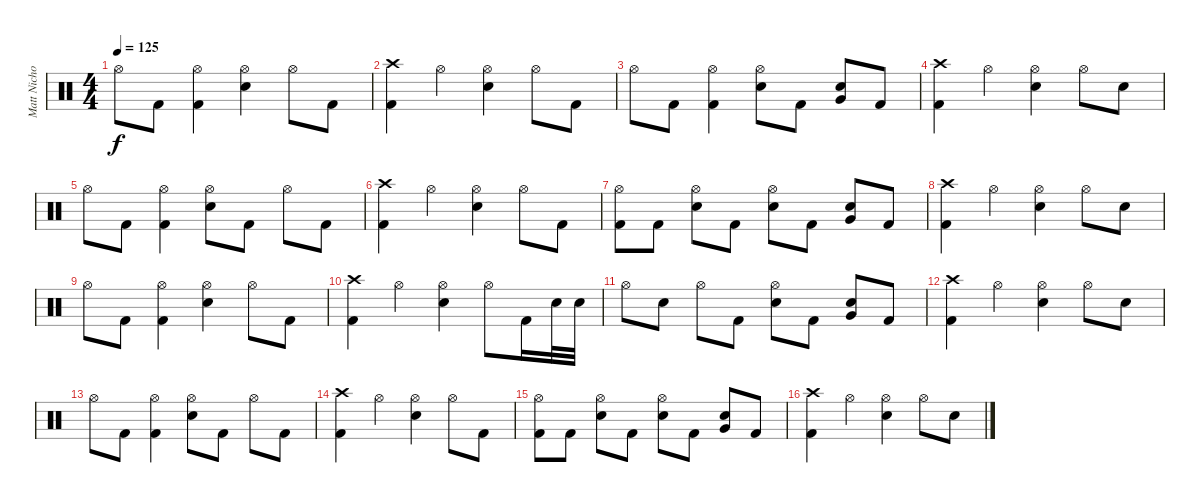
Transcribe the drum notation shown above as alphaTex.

\track ("Matt Nicholls" "Matt Nicho") {instrument percussion}
\staff {score}
\articulation defaults
\ts (4 4)
\tempo 125
\clef neutral
\ks c "Hi-Hat (open)".8{dy f} "Kick (hit) 2".8
("Hi-Hat (open)" "Kick (hit) 2").4 ("Hi-Hat (open)" "Electric Snare (hit)").4 "Hi-Hat (open)".8 "Kick (hit) 2".8 |
("Crash high (hit)" "Kick (hit) 2").4 "Hi-Hat (open)".4 ("Hi-Hat (open)" "Electric Snare (hit)").4 "Hi-Hat (open)".8 "Kick (hit) 2".8 |
"Hi-Hat (open)".8 "Kick (hit) 2".8 ("Hi-Hat (open)" "Kick (hit) 2").4 ("Hi-Hat (open)" "Electric Snare (hit)").8 "Kick (hit) 2".8 ("Electric Snare (hit)" "Very Low Tom (hit)").8 "Kick (hit) 2".8 |
("Crash high (hit)" "Kick (hit) 2").4 "Hi-Hat (open)".4 ("Hi-Hat (open)" "Electric Snare (hit)").4 "Hi-Hat (open)".8 "Electric Snare (hit)".8 |
"Hi-Hat (open)".8 "Kick (hit) 2".8 ("Hi-Hat (open)" "Kick (hit) 2").4 ("Hi-Hat (open)" "Electric Snare (hit)").8 "Kick (hit) 2".8 "Hi-Hat (open)".8 "Kick (hit) 2".8 |
("Crash high (hit)" "Kick (hit) 2").4 "Hi-Hat (open)".4 ("Hi-Hat (open)" "Electric Snare (hit)").4 "Hi-Hat (open)".8 "Kick (hit) 2".8 |
("Hi-Hat (open)" "Kick (hit) 2").8 "Kick (hit) 2".8 ("Hi-Hat (open)" "Electric Snare (hit)").8 "Kick (hit) 2".8 ("Hi-Hat (open)" "Electric Snare (hit)").8 "Kick (hit) 2".8 ("Electric Snare (hit)" "Very Low Tom (hit)").8 "Kick (hit) 2".8 |
("Crash high (hit)" "Kick (hit) 2").4 "Hi-Hat (open)".4 ("Hi-Hat (open)" "Electric Snare (hit)").4 "Hi-Hat (open)".8 "Electric Snare (hit)".8 |
"Hi-Hat (open)".8 "Kick (hit) 2".8 ("Hi-Hat (open)" "Kick (hit) 2").4 ("Hi-Hat (open)" "Electric Snare (hit)").4 "Hi-Hat (open)".8 "Kick (hit) 2".8 |
("Crash high (hit)" "Kick (hit) 2").4 "Hi-Hat (open)".4 ("Hi-Hat (open)" "Electric Snare (hit)").4 "Hi-Hat (open)".8 "Kick (hit) 2".16 "Electric Snare (hit)".32 "Electric Snare (hit)".32 |
"Hi-Hat (open)".8 "Electric Snare (hit)".8 "Hi-Hat (open)".8 "Kick (hit) 2".8 ("Hi-Hat (open)" "Electric Snare (hit)").8 "Kick (hit) 2".8 ("Electric Snare (hit)" "Very Low Tom (hit)").8 "Kick (hit) 2".8 |
("Crash high (hit)" "Kick (hit) 2").4 "Hi-Hat (open)".4 ("Hi-Hat (open)" "Electric Snare (hit)").4 "Hi-Hat (open)".8 "Electric Snare (hit)".8 |
"Hi-Hat (open)".8 "Kick (hit) 2".8 ("Hi-Hat (open)" "Kick (hit) 2").4 ("Hi-Hat (open)" "Electric Snare (hit)").8 "Kick (hit) 2".8 "Hi-Hat (open)".8 "Kick (hit) 2".8 |
("Crash high (hit)" "Kick (hit) 2").4 "Hi-Hat (open)".4 ("Hi-Hat (open)" "Electric Snare (hit)").4 "Hi-Hat (open)".8 "Kick (hit) 2".8 |
("Hi-Hat (open)" "Kick (hit) 2").8 "Kick (hit) 2".8 ("Hi-Hat (open)" "Electric Snare (hit)").8 "Kick (hit) 2".8 ("Hi-Hat (open)" "Electric Snare (hit)").8 "Kick (hit) 2".8 ("Electric Snare (hit)" "Very Low Tom (hit)").8 "Kick (hit) 2".8 |
("Crash high (hit)" "Kick (hit) 2").4 "Hi-Hat (open)".4 ("Hi-Hat (open)" "Electric Snare (hit)").4 "Hi-Hat (open)".8 "Electric Snare (hit)".8
